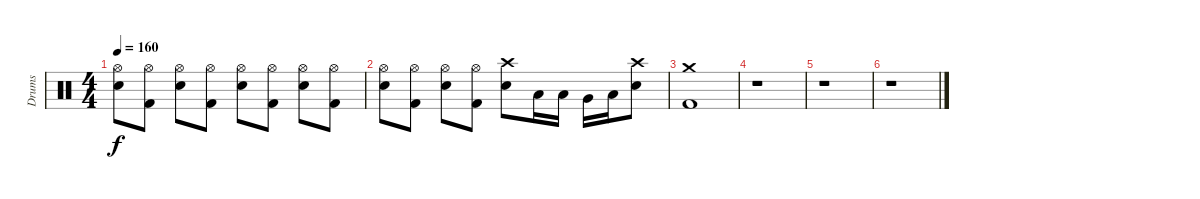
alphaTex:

\track ("Drums" "Drums") {instrument percussion}
\staff {score}
\articulation defaults
\ts (4 4)
\tempo 160
\clef neutral
\ks c
("Hi-Hat (open)" "Snare (hit) 2").8{dy f} ("Hi-Hat (open)" "Kick (hit) 2").8 ("Hi-Hat (open)" "Snare (hit) 2").8 ("Hi-Hat (open)" "Kick (hit) 2").8 ("Hi-Hat (open)" "Snare (hit) 2").8 ("Hi-Hat (open)" "Kick (hit) 2").8 ("Hi-Hat (open)" "Snare (hit) 2").8 ("Hi-Hat (open)" "Kick (hit) 2").8 |
("Hi-Hat (open)" "Snare (hit) 2").8 ("Hi-Hat (open)" "Kick (hit) 2").8 ("Hi-Hat (open)" "Snare (hit) 2").8 ("Hi-Hat (open)" "Kick (hit) 2").8 ("Crash high (hit)" "Snare (hit) 2").8 "Low Tom (hit)".16 "Low Tom (hit)".16 "Very Low Tom (hit)".16 "Low Floor Tom (hit)".16 ("Crash high (hit)" "Snare (hit) 2").8 |
("Crash medium (hit)" "Kick (hit) 2").1 |
r.1 |
r.1 |
r.1
